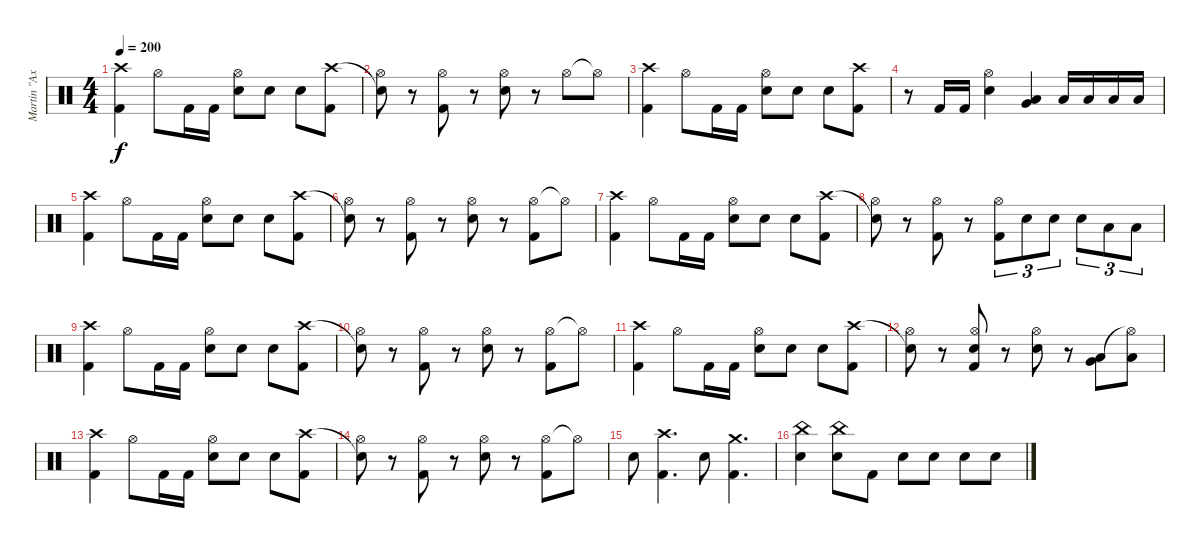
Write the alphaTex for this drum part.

\track ("Martin \"Axe\" Axenrot" "Martin \"Ax") {instrument percussion}
\staff {score}
\articulation defaults
\ts (4 4)
\tempo 200
\clef neutral
\ks c
("Crash high (hit)" "Kick (hit) 2").4{dy f} "Hi-Hat (open)".8 "Kick (hit) 2".16 "Kick (hit) 2".16 ("Hi-Hat (open)" "Electric Snare (hit)").8 "Electric Snare (hit)".8 "Electric Snare (hit)".8 ("Crash high (hit)" "Kick (hit) 2").8 |
("Snare (hit)"{t} "Hi-Hat (open)").8 r.8 ("Hi-Hat (open)" "Kick (hit) 2").8 r.8 ("Hi-Hat (open)" "Electric Snare (hit)").8 r.8 "Hi-Hat (open)".8 "Hi-Hat (open)"{t}.8 |
("Crash high (hit)" "Kick (hit) 2").4 "Hi-Hat (open)".8 "Kick (hit) 2".16 "Kick (hit) 2".16 ("Hi-Hat (open)" "Electric Snare (hit)").8 "Electric Snare (hit)".8 "Electric Snare (hit)".8 ("Crash high (hit)" "Kick (hit) 2").8 |
r.8 "Kick (hit) 2".16 "Kick (hit) 2".16 ("Hi-Hat (open)" "Electric Snare (hit)").4 ("Very Low Tom (hit)" "Low Floor Tom (hit)").4 "Low Tom (hit)".16 "Low Tom (hit)".16 "Low Tom (hit)".16 "Low Tom (hit)".16 |
("Crash high (hit)" "Kick (hit) 2").4 "Hi-Hat (open)".8 "Kick (hit) 2".16 "Kick (hit) 2".16 ("Hi-Hat (open)" "Electric Snare (hit)").8 "Electric Snare (hit)".8 "Electric Snare (hit)".8 ("Crash high (hit)" "Kick (hit) 2").8 |
("Snare (hit)"{t} "Hi-Hat (open)").8 r.8 ("Hi-Hat (open)" "Kick (hit) 2").8 r.8 ("Hi-Hat (open)" "Electric Snare (hit)").8 r.8 ("Hi-Hat (open)" "Kick (hit) 2").8 "Hi-Hat (open)"{t}.8 |
("Crash high (hit)" "Kick (hit) 2").4 "Hi-Hat (open)".8 "Kick (hit) 2".16 "Kick (hit) 2".16 ("Hi-Hat (open)" "Electric Snare (hit)").8 "Electric Snare (hit)".8 "Electric Snare (hit)".8 ("Crash high (hit)" "Kick (hit) 2").8 |
("Snare (hit)"{t} "Hi-Hat (open)").8 r.8 ("Hi-Hat (open)" "Kick (hit) 2").8 r.8 ("Hi-Hat (open)" "Kick (hit) 2").8{tu (3 2)} "Electric Snare (hit)".8{tu (3 2)} "Electric Snare (hit)".8{tu (3 2)} "Electric Snare (hit)".8{tu (3 2)} "Low Tom (hit)".8{tu (3 2)} "Low Tom (hit)".8{tu (3 2)} |
("Crash high (hit)" "Kick (hit) 2").4 "Hi-Hat (open)".8 "Kick (hit) 2".16 "Kick (hit) 2".16 ("Hi-Hat (open)" "Electric Snare (hit)").8 "Electric Snare (hit)".8 "Electric Snare (hit)".8 ("Crash high (hit)" "Kick (hit) 2").8 |
("Snare (hit)"{t} "Hi-Hat (open)").8 r.8 ("Hi-Hat (open)" "Kick (hit) 2").8 r.8 ("Hi-Hat (open)" "Electric Snare (hit)").8 r.8 ("Hi-Hat (open)" "Kick (hit) 2").8 "Hi-Hat (open)"{t}.8 |
("Crash high (hit)" "Kick (hit) 2").4 "Hi-Hat (open)".8 "Kick (hit) 2".16 "Kick (hit) 2".16 ("Hi-Hat (open)" "Electric Snare (hit)").8 "Electric Snare (hit)".8 "Electric Snare (hit)".8 ("Crash high (hit)" "Kick (hit) 2").8 |
("Snare (hit)"{t} "Hi-Hat (open)").8 r.8 ("Hi-Hat (open)" "Electric Snare (hit)" "Kick (hit) 2").8 r.8 ("Hi-Hat (open)" "Electric Snare (hit)").8 r.8 ("Very Low Tom (hit)" "Low Floor Tom (hit)").8 ("Hi-Hat (open)"{t} "Low Floor Tom (hit)").8 |
("Crash high (hit)" "Kick (hit) 2").4 "Hi-Hat (open)".8 "Kick (hit) 2".16 "Kick (hit) 2".16 ("Hi-Hat (open)" "Electric Snare (hit)").8 "Electric Snare (hit)".8 "Electric Snare (hit)".8 ("Crash high (hit)" "Kick (hit) 2").8 |
("Snare (hit)"{t} "Hi-Hat (open)").8 r.8 ("Hi-Hat (open)" "Kick (hit) 2").8 r.8 ("Hi-Hat (open)" "Electric Snare (hit)").8 r.8 ("Hi-Hat (open)" "Kick (hit) 2").8 "Hi-Hat (open)"{t}.8 |
"Electric Snare (hit)".8 ("Crash high (hit)" "Kick (hit) 2").4{d} "Electric Snare (hit)".8 ("Crash medium (hit)" "Kick (hit) 2").4{d} |
("China (hit)" "Electric Snare (hit)").4 ("China (hit)" "Electric Snare (hit)").8 "Kick (hit) 2".8 "Electric Snare (hit)".8 "Electric Snare (hit)".8 "Electric Snare (hit)".8 "Electric Snare (hit)".8
